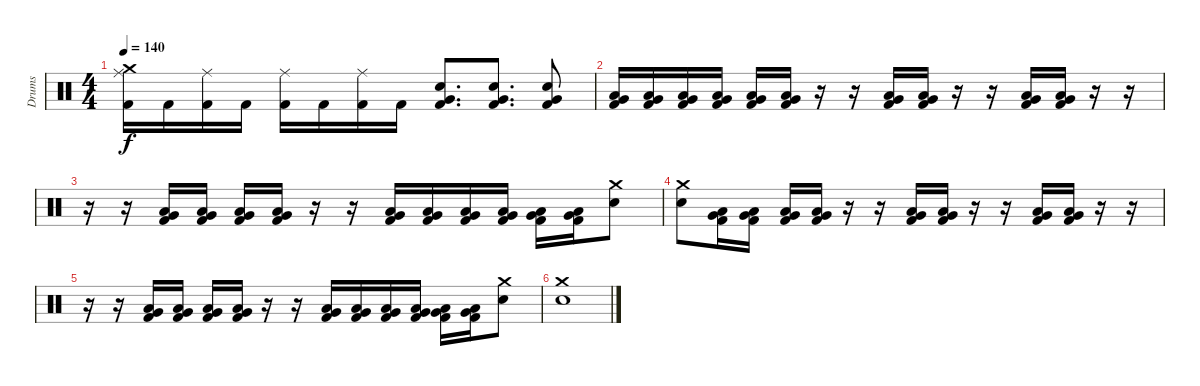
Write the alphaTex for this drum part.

\track ("Drums" "Drums") {instrument percussion}
\staff {score}
\articulation defaults
\ts (4 4)
\tempo 140
\clef neutral
\ks c
("Crash medium (hit)" "Ride (middle)" "Kick (hit) 2").16{dy f} "Kick (hit) 2".16 ("Ride (middle)" "Kick (hit) 2").16 "Kick (hit) 2".16 ("Ride (middle)" "Kick (hit) 2").16 "Kick (hit) 2".16 ("Ride (middle)" "Kick (hit) 2").16 "Kick (hit) 2".16 ("Very Low Tom (hit)" "Electric Snare (hit)" "Kick (hit) 2").8{d} ("Very Low Tom (hit)" "Electric Snare (hit)" "Kick (hit) 2").8{d} ("Very Low Tom (hit)" "Electric Snare (hit)" "Kick (hit) 2").8 |
("Very Low Tom (hit)" "Low Floor Tom (hit)" "Kick (hit) 2").16 ("Very Low Tom (hit)" "Low Floor Tom (hit)" "Kick (hit) 2").16 ("Very Low Tom (hit)" "Low Floor Tom (hit)" "Kick (hit) 2").16 ("Very Low Tom (hit)" "Low Floor Tom (hit)" "Kick (hit) 2").16 ("Very Low Tom (hit)" "Low Floor Tom (hit)" "Kick (hit) 2").16 ("Very Low Tom (hit)" "Low Floor Tom (hit)" "Kick (hit) 2").16 r.16 r.16 ("Very Low Tom (hit)" "Low Floor Tom (hit)" "Kick (hit) 2").16 ("Very Low Tom (hit)" "Low Floor Tom (hit)" "Kick (hit) 2").16 r.16 r.16 ("Very Low Tom (hit)" "Low Floor Tom (hit)" "Kick (hit) 2").16 ("Very Low Tom (hit)" "Low Floor Tom (hit)" "Kick (hit) 2").16 r.16 r.16 |
r.16 r.16 ("Very Low Tom (hit)" "Low Floor Tom (hit)" "Kick (hit) 2").16 ("Very Low Tom (hit)" "Low Floor Tom (hit)" "Kick (hit) 2").16 ("Very Low Tom (hit)" "Low Floor Tom (hit)" "Kick (hit) 2").16 ("Very Low Tom (hit)" "Low Floor Tom (hit)" "Kick (hit) 2").16 r.16 r.16 ("Very Low Tom (hit)" "Low Floor Tom (hit)" "Kick (hit) 2").16 ("Very Low Tom (hit)" "Low Floor Tom (hit)" "Kick (hit) 2").16 ("Very Low Tom (hit)" "Low Floor Tom (hit)" "Kick (hit) 2").16 ("Very Low Tom (hit)" "Low Floor Tom (hit)" "Kick (hit) 2").16 ("Very Low Tom (hit)" "Low Floor Tom (hit)" "Kick (hit) 2").16 ("Very Low Tom (hit)" "Low Floor Tom (hit)" "Kick (hit) 2").16 ("Crash medium (hit)" "Electric Snare (hit)").8 |
("Crash medium (hit)" "Electric Snare (hit)").8 ("Very Low Tom (hit)" "Low Floor Tom (hit)" "Kick (hit) 2").16 ("Very Low Tom (hit)" "Low Floor Tom (hit)" "Kick (hit) 2").16 ("Very Low Tom (hit)" "Low Floor Tom (hit)" "Kick (hit) 2").16 ("Very Low Tom (hit)" "Low Floor Tom (hit)" "Kick (hit) 2").16 r.16 r.16 ("Very Low Tom (hit)" "Low Floor Tom (hit)" "Kick (hit) 2").16 ("Very Low Tom (hit)" "Low Floor Tom (hit)" "Kick (hit) 2").16 r.16 r.16 ("Very Low Tom (hit)" "Low Floor Tom (hit)" "Kick (hit) 2").16 ("Very Low Tom (hit)" "Low Floor Tom (hit)" "Kick (hit) 2").16 r.16 r.16 |
r.16 r.16 ("Very Low Tom (hit)" "Low Floor Tom (hit)" "Kick (hit) 2").16 ("Very Low Tom (hit)" "Low Floor Tom (hit)" "Kick (hit) 2").16 ("Very Low Tom (hit)" "Low Floor Tom (hit)" "Kick (hit) 2").16 ("Very Low Tom (hit)" "Low Floor Tom (hit)" "Kick (hit) 2").16 r.16 r.16 ("Very Low Tom (hit)" "Low Floor Tom (hit)" "Kick (hit) 2").16 ("Very Low Tom (hit)" "Low Floor Tom (hit)" "Kick (hit) 2").16 ("Very Low Tom (hit)" "Low Floor Tom (hit)" "Kick (hit) 2").16 ("Very Low Tom (hit)" "Low Floor Tom (hit)" "Kick (hit) 2").16 ("Very Low Tom (hit)" "Low Floor Tom (hit)" "Kick (hit) 2").16 ("Very Low Tom (hit)" "Low Floor Tom (hit)" "Kick (hit) 2").16 ("Crash medium (hit)" "Electric Snare (hit)").8 |
("Crash medium (hit)" "Electric Snare (hit)").1
